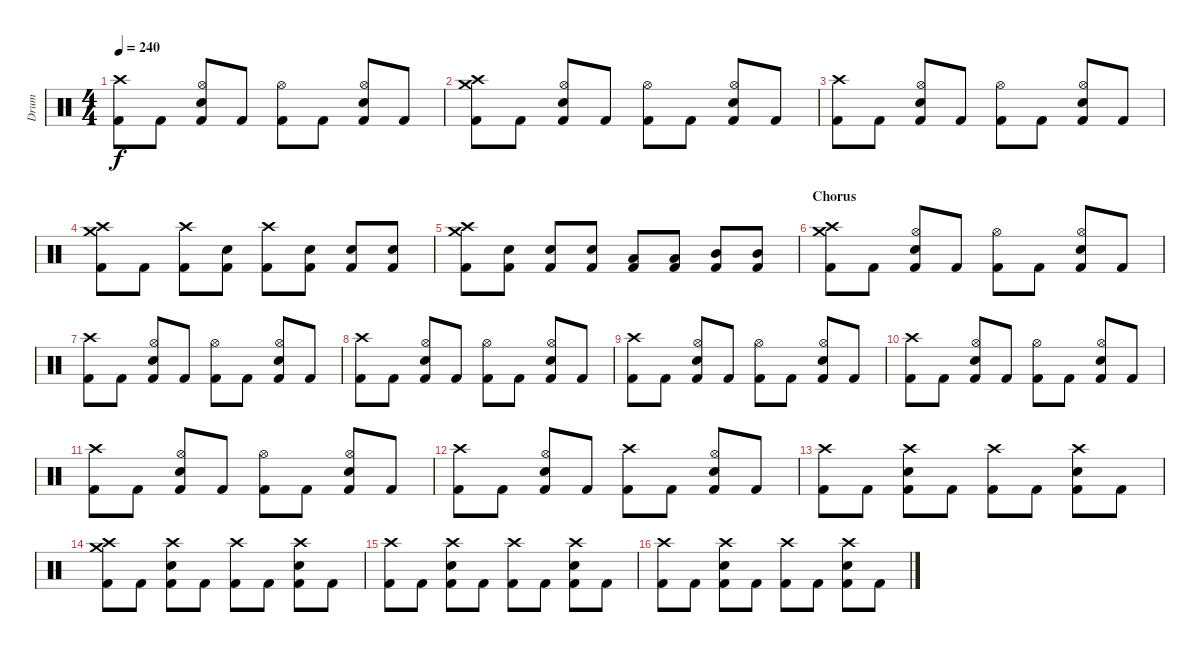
\track ("Drum" "Drum") {instrument percussion}
\staff {score}
\articulation defaults
\ts (4 4)
\tempo 240
\clef neutral
\ks c
("Crash high (hit)" "Kick (hit) 2").8{dy f} "Kick (hit) 2".8 ("Hi-Hat (open)" "Kick (hit) 2" "Electric Snare (hit)").8 "Kick (hit) 2".8 ("Hi-Hat (open)" "Kick (hit) 2").8 "Kick (hit) 2".8 ("Hi-Hat (open)" "Kick (hit) 2" "Electric Snare (hit)").8 "Kick (hit) 2".8 |
("Crash high (hit)" "Kick (hit) 2" "Crash medium (hit)").8 "Kick (hit) 2".8 ("Hi-Hat (open)" "Kick (hit) 2" "Electric Snare (hit)").8 "Kick (hit) 2".8 ("Hi-Hat (open)" "Kick (hit) 2").8 "Kick (hit) 2".8 ("Hi-Hat (open)" "Kick (hit) 2" "Electric Snare (hit)").8 "Kick (hit) 2".8 |
("Crash high (hit)" "Kick (hit) 2").8 "Kick (hit) 2".8 ("Hi-Hat (open)" "Kick (hit) 2" "Electric Snare (hit)").8 "Kick (hit) 2".8 ("Hi-Hat (open)" "Kick (hit) 2").8 "Kick (hit) 2".8 ("Hi-Hat (open)" "Kick (hit) 2" "Electric Snare (hit)").8 "Kick (hit) 2".8 |
("Crash high (hit)" "Kick (hit) 2" "Crash medium (hit)").8 "Kick (hit) 2".8 ("Crash high (hit)" "Kick (hit) 2").8 ("Kick (hit) 2" "Electric Snare (hit)").8 ("Crash high (hit)" "Kick (hit) 2").8 ("Kick (hit) 2" "Electric Snare (hit)").8 ("Kick (hit) 2" "Electric Snare (hit)").8 ("Kick (hit) 2" "Electric Snare (hit)").8 |
("Crash high (hit)" "Kick (hit) 2" "Crash medium (hit)").8 ("Kick (hit) 2" "Electric Snare (hit)").8 ("Kick (hit) 2" "Electric Snare (hit)").8 ("Kick (hit) 2" "Electric Snare (hit)").8 ("Kick (hit) 2" "Low Tom (hit)").8 ("Kick (hit) 2" "Low Tom (hit)").8 ("Kick (hit) 2" "Mid Tom (hit)").8 ("Kick (hit) 2" "Mid Tom (hit)").8 |
\section ("" "Chorus")
("Crash high (hit)" "Kick (hit) 2" "Crash medium (hit)").8 "Kick (hit) 2".8 ("Hi-Hat (open)" "Kick (hit) 2" "Electric Snare (hit)").8 "Kick (hit) 2".8 ("Hi-Hat (open)" "Kick (hit) 2").8 "Kick (hit) 2".8 ("Hi-Hat (open)" "Kick (hit) 2" "Electric Snare (hit)").8 "Kick (hit) 2".8 |
("Crash high (hit)" "Kick (hit) 2").8 "Kick (hit) 2".8 ("Hi-Hat (open)" "Kick (hit) 2" "Electric Snare (hit)").8 "Kick (hit) 2".8 ("Hi-Hat (open)" "Kick (hit) 2").8 "Kick (hit) 2".8 ("Hi-Hat (open)" "Kick (hit) 2" "Electric Snare (hit)").8 "Kick (hit) 2".8 |
("Crash high (hit)" "Kick (hit) 2").8 "Kick (hit) 2".8 ("Hi-Hat (open)" "Kick (hit) 2" "Electric Snare (hit)").8 "Kick (hit) 2".8 ("Hi-Hat (open)" "Kick (hit) 2").8 "Kick (hit) 2".8 ("Hi-Hat (open)" "Kick (hit) 2" "Electric Snare (hit)").8 "Kick (hit) 2".8 |
("Crash high (hit)" "Kick (hit) 2").8 "Kick (hit) 2".8 ("Hi-Hat (open)" "Kick (hit) 2" "Electric Snare (hit)").8 "Kick (hit) 2".8 ("Hi-Hat (open)" "Kick (hit) 2").8 "Kick (hit) 2".8 ("Hi-Hat (open)" "Kick (hit) 2" "Electric Snare (hit)").8 "Kick (hit) 2".8 |
("Crash high (hit)" "Kick (hit) 2").8 "Kick (hit) 2".8 ("Hi-Hat (open)" "Kick (hit) 2" "Electric Snare (hit)").8 "Kick (hit) 2".8 ("Hi-Hat (open)" "Kick (hit) 2").8 "Kick (hit) 2".8 ("Hi-Hat (open)" "Kick (hit) 2" "Electric Snare (hit)").8 "Kick (hit) 2".8 |
("Crash high (hit)" "Kick (hit) 2").8 "Kick (hit) 2".8 ("Hi-Hat (open)" "Kick (hit) 2" "Electric Snare (hit)").8 "Kick (hit) 2".8 ("Hi-Hat (open)" "Kick (hit) 2").8 "Kick (hit) 2".8 ("Hi-Hat (open)" "Kick (hit) 2" "Electric Snare (hit)").8 "Kick (hit) 2".8 |
("Crash high (hit)" "Kick (hit) 2").8 "Kick (hit) 2".8 ("Hi-Hat (open)" "Kick (hit) 2" "Electric Snare (hit)").8 "Kick (hit) 2".8 ("Crash high (hit)" "Kick (hit) 2").8 "Kick (hit) 2".8 ("Hi-Hat (open)" "Kick (hit) 2" "Electric Snare (hit)").8 "Kick (hit) 2".8 |
("Crash high (hit)" "Kick (hit) 2").8 "Kick (hit) 2".8 ("Crash high (hit)" "Kick (hit) 2" "Electric Snare (hit)").8 "Kick (hit) 2".8 ("Crash high (hit)" "Kick (hit) 2").8 "Kick (hit) 2".8 ("Crash high (hit)" "Kick (hit) 2" "Electric Snare (hit)").8 "Kick (hit) 2".8 |
("Crash high (hit)" "Kick (hit) 2" "Crash medium (hit)").8 "Kick (hit) 2".8 ("Crash high (hit)" "Kick (hit) 2" "Electric Snare (hit)").8 "Kick (hit) 2".8 ("Crash high (hit)" "Kick (hit) 2").8 "Kick (hit) 2".8 ("Crash high (hit)" "Kick (hit) 2" "Electric Snare (hit)").8 "Kick (hit) 2".8 |
("Crash high (hit)" "Kick (hit) 2").8 "Kick (hit) 2".8 ("Crash high (hit)" "Kick (hit) 2" "Electric Snare (hit)").8 "Kick (hit) 2".8 ("Crash high (hit)" "Kick (hit) 2").8 "Kick (hit) 2".8 ("Crash high (hit)" "Kick (hit) 2" "Electric Snare (hit)").8 "Kick (hit) 2".8 |
("Crash high (hit)" "Kick (hit) 2").8 "Kick (hit) 2".8 ("Crash high (hit)" "Kick (hit) 2" "Electric Snare (hit)").8 "Kick (hit) 2".8 ("Crash high (hit)" "Kick (hit) 2").8 "Kick (hit) 2".8 ("Crash high (hit)" "Kick (hit) 2" "Electric Snare (hit)").8 "Kick (hit) 2".8
